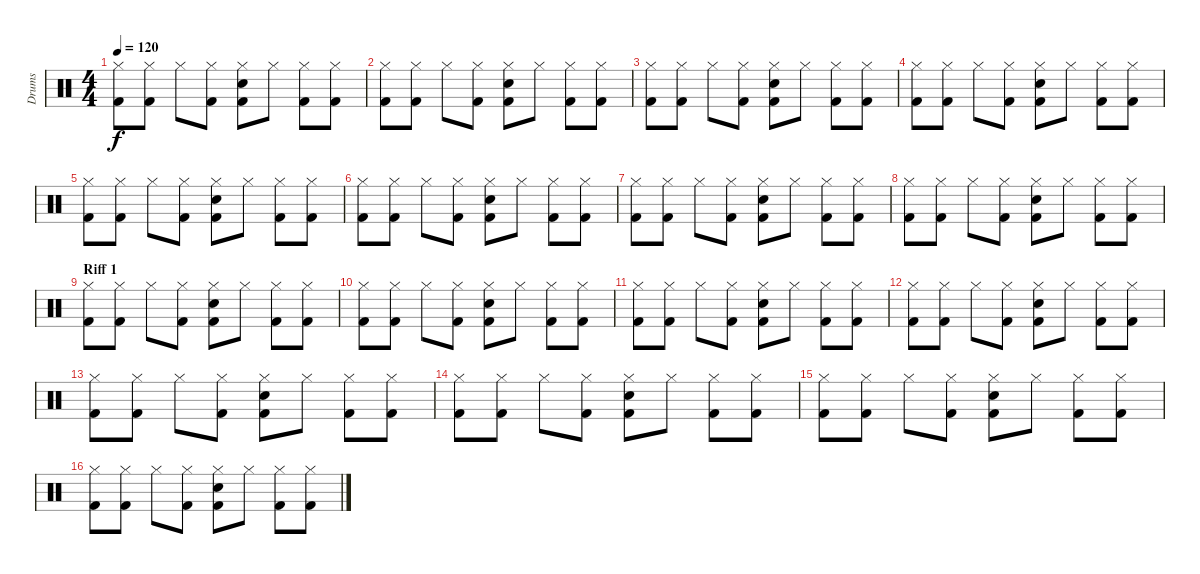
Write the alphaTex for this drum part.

\track ("Drums" "Drums") {instrument percussion}
\staff {score}
\articulation defaults
\ts (4 4)
\tempo 120
\clef neutral
\ks c
("Hi-Hat (closed)" "Kick (hit) 2").8{dy f} ("Hi-Hat (closed)" "Kick (hit) 2").8 "Hi-Hat (closed)".8 ("Hi-Hat (closed)" "Kick (hit) 2").8 ("Hi-Hat (closed)" "Snare (hit) 2" "Kick (hit) 2").8 "Hi-Hat (closed)".8 ("Hi-Hat (closed)" "Kick (hit) 2").8 ("Hi-Hat (closed)" "Kick (hit) 2").8 |
("Hi-Hat (closed)" "Kick (hit) 2").8 ("Hi-Hat (closed)" "Kick (hit) 2").8 "Hi-Hat (closed)".8 ("Hi-Hat (closed)" "Kick (hit) 2").8 ("Hi-Hat (closed)" "Snare (hit) 2" "Kick (hit) 2").8 "Hi-Hat (closed)".8 ("Hi-Hat (closed)" "Kick (hit) 2").8 ("Hi-Hat (closed)" "Kick (hit) 2").8 |
("Hi-Hat (closed)" "Kick (hit) 2").8 ("Hi-Hat (closed)" "Kick (hit) 2").8 "Hi-Hat (closed)".8 ("Hi-Hat (closed)" "Kick (hit) 2").8 ("Hi-Hat (closed)" "Snare (hit) 2" "Kick (hit) 2").8 "Hi-Hat (closed)".8 ("Hi-Hat (closed)" "Kick (hit) 2").8 ("Hi-Hat (closed)" "Kick (hit) 2").8 |
("Hi-Hat (closed)" "Kick (hit) 2").8 ("Hi-Hat (closed)" "Kick (hit) 2").8 "Hi-Hat (closed)".8 ("Hi-Hat (closed)" "Kick (hit) 2").8 ("Hi-Hat (closed)" "Snare (hit) 2" "Kick (hit) 2").8 "Hi-Hat (closed)".8 ("Hi-Hat (closed)" "Kick (hit) 2").8 ("Hi-Hat (closed)" "Kick (hit) 2").8 |
("Hi-Hat (closed)" "Kick (hit) 2").8 ("Hi-Hat (closed)" "Kick (hit) 2").8 "Hi-Hat (closed)".8 ("Hi-Hat (closed)" "Kick (hit) 2").8 ("Hi-Hat (closed)" "Snare (hit) 2" "Kick (hit) 2").8 "Hi-Hat (closed)".8 ("Hi-Hat (closed)" "Kick (hit) 2").8 ("Hi-Hat (closed)" "Kick (hit) 2").8 |
("Hi-Hat (closed)" "Kick (hit) 2").8 ("Hi-Hat (closed)" "Kick (hit) 2").8 "Hi-Hat (closed)".8 ("Hi-Hat (closed)" "Kick (hit) 2").8 ("Hi-Hat (closed)" "Snare (hit) 2" "Kick (hit) 2").8 "Hi-Hat (closed)".8 ("Hi-Hat (closed)" "Kick (hit) 2").8 ("Hi-Hat (closed)" "Kick (hit) 2").8 |
("Hi-Hat (closed)" "Kick (hit) 2").8 ("Hi-Hat (closed)" "Kick (hit) 2").8 "Hi-Hat (closed)".8 ("Hi-Hat (closed)" "Kick (hit) 2").8 ("Hi-Hat (closed)" "Snare (hit) 2" "Kick (hit) 2").8 "Hi-Hat (closed)".8 ("Hi-Hat (closed)" "Kick (hit) 2").8 ("Hi-Hat (closed)" "Kick (hit) 2").8 |
("Hi-Hat (closed)" "Kick (hit) 2").8 ("Hi-Hat (closed)" "Kick (hit) 2").8 "Hi-Hat (closed)".8 ("Hi-Hat (closed)" "Kick (hit) 2").8 ("Hi-Hat (closed)" "Snare (hit) 2" "Kick (hit) 2").8 "Hi-Hat (closed)".8 ("Hi-Hat (closed)" "Kick (hit) 2").8 ("Hi-Hat (closed)" "Kick (hit) 2").8 |
\section ("" "Riff 1")
("Hi-Hat (closed)" "Kick (hit) 2").8 ("Hi-Hat (closed)" "Kick (hit) 2").8 "Hi-Hat (closed)".8 ("Hi-Hat (closed)" "Kick (hit) 2").8 ("Hi-Hat (closed)" "Snare (hit) 2" "Kick (hit) 2").8 "Hi-Hat (closed)".8 ("Hi-Hat (closed)" "Kick (hit) 2").8 ("Hi-Hat (closed)" "Kick (hit) 2").8 |
("Hi-Hat (closed)" "Kick (hit) 2").8 ("Hi-Hat (closed)" "Kick (hit) 2").8 "Hi-Hat (closed)".8 ("Hi-Hat (closed)" "Kick (hit) 2").8 ("Hi-Hat (closed)" "Snare (hit) 2" "Kick (hit) 2").8 "Hi-Hat (closed)".8 ("Hi-Hat (closed)" "Kick (hit) 2").8 ("Hi-Hat (closed)" "Kick (hit) 2").8 |
("Hi-Hat (closed)" "Kick (hit) 2").8 ("Hi-Hat (closed)" "Kick (hit) 2").8 "Hi-Hat (closed)".8 ("Hi-Hat (closed)" "Kick (hit) 2").8 ("Hi-Hat (closed)" "Snare (hit) 2" "Kick (hit) 2").8 "Hi-Hat (closed)".8 ("Hi-Hat (closed)" "Kick (hit) 2").8 ("Hi-Hat (closed)" "Kick (hit) 2").8 |
("Hi-Hat (closed)" "Kick (hit) 2").8 ("Hi-Hat (closed)" "Kick (hit) 2").8 "Hi-Hat (closed)".8 ("Hi-Hat (closed)" "Kick (hit) 2").8 ("Hi-Hat (closed)" "Snare (hit) 2" "Kick (hit) 2").8 "Hi-Hat (closed)".8 ("Hi-Hat (closed)" "Kick (hit) 2").8 ("Hi-Hat (closed)" "Kick (hit) 2").8 |
("Hi-Hat (closed)" "Kick (hit) 2").8 ("Hi-Hat (closed)" "Kick (hit) 2").8 "Hi-Hat (closed)".8 ("Hi-Hat (closed)" "Kick (hit) 2").8 ("Hi-Hat (closed)" "Snare (hit) 2" "Kick (hit) 2").8 "Hi-Hat (closed)".8 ("Hi-Hat (closed)" "Kick (hit) 2").8 ("Hi-Hat (closed)" "Kick (hit) 2").8 |
("Hi-Hat (closed)" "Kick (hit) 2").8 ("Hi-Hat (closed)" "Kick (hit) 2").8 "Hi-Hat (closed)".8 ("Hi-Hat (closed)" "Kick (hit) 2").8 ("Hi-Hat (closed)" "Snare (hit) 2" "Kick (hit) 2").8 "Hi-Hat (closed)".8 ("Hi-Hat (closed)" "Kick (hit) 2").8 ("Hi-Hat (closed)" "Kick (hit) 2").8 |
("Hi-Hat (closed)" "Kick (hit) 2").8 ("Hi-Hat (closed)" "Kick (hit) 2").8 "Hi-Hat (closed)".8 ("Hi-Hat (closed)" "Kick (hit) 2").8 ("Hi-Hat (closed)" "Snare (hit) 2" "Kick (hit) 2").8 "Hi-Hat (closed)".8 ("Hi-Hat (closed)" "Kick (hit) 2").8 ("Hi-Hat (closed)" "Kick (hit) 2").8 |
("Hi-Hat (closed)" "Kick (hit) 2").8 ("Hi-Hat (closed)" "Kick (hit) 2").8 "Hi-Hat (closed)".8 ("Hi-Hat (closed)" "Kick (hit) 2").8 ("Hi-Hat (closed)" "Snare (hit) 2" "Kick (hit) 2").8 "Hi-Hat (closed)".8 ("Hi-Hat (closed)" "Kick (hit) 2").8 ("Hi-Hat (closed)" "Kick (hit) 2").8
